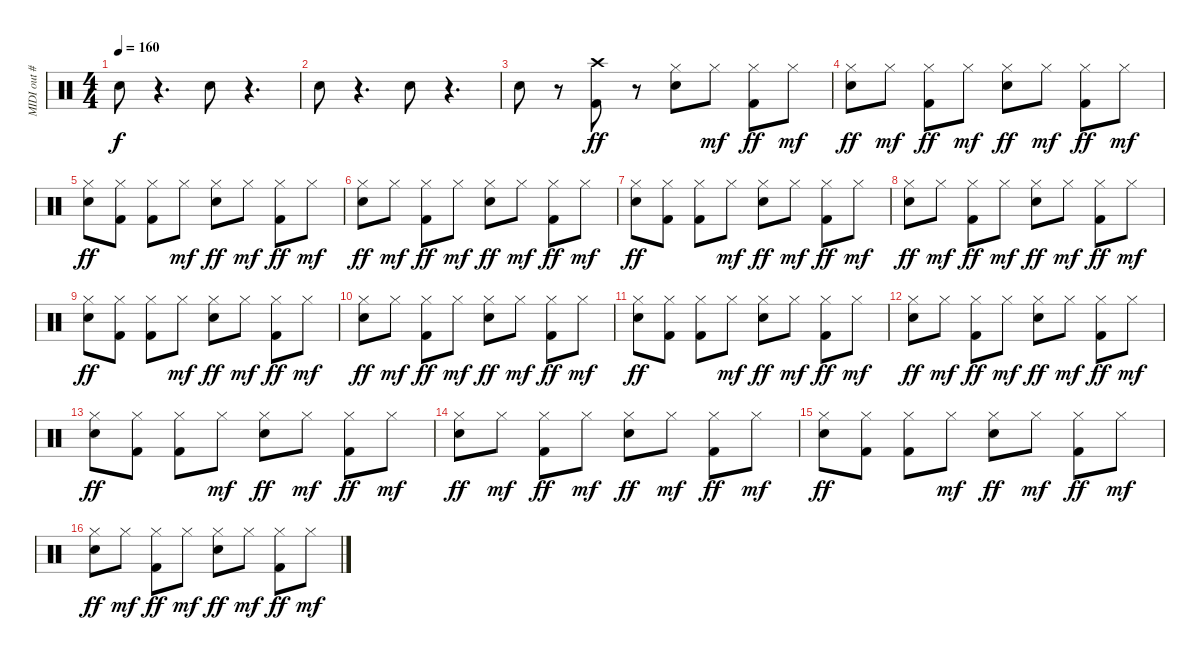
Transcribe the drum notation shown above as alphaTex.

\track ("MIDI out #4" "MIDI out #") {instrument percussion}
\staff {score}
\articulation defaults
\ts (4 4)
\tempo 160
\clef neutral
\ks c "Snare (hit) 2".8{dy f}
r.4{d} "Snare (hit) 2".8 r.4{d} |
"Snare (hit) 2".8 r.4{d} "Snare (hit) 2".8 r.4{d} |
"Snare (hit) 2".8 r.8 ("Crash high (hit)" "Kick (hit) 2").8{dy ff} r.8 ("Hi-Hat (closed)" "Snare (hit) 2").8 "Hi-Hat (closed)".8{dy mf} ("Hi-Hat (closed)" "Kick (hit) 2").8{dy ff} "Hi-Hat (closed)".8{dy mf} |
("Hi-Hat (closed)" "Snare (hit) 2").8{dy ff} "Hi-Hat (closed)".8{dy mf} ("Hi-Hat (closed)" "Kick (hit) 2").8{dy ff} "Hi-Hat (closed)".8{dy mf} ("Hi-Hat (closed)" "Snare (hit) 2").8{dy ff} "Hi-Hat (closed)".8{dy mf} ("Hi-Hat (closed)" "Kick (hit) 2").8{dy ff} "Hi-Hat (closed)".8{dy mf} |
("Hi-Hat (closed)" "Snare (hit) 2").8{dy ff} ("Hi-Hat (closed)" "Kick (hit) 2").8 ("Hi-Hat (closed)" "Kick (hit) 2").8 "Hi-Hat (closed)".8{dy mf} ("Hi-Hat (closed)" "Snare (hit) 2").8{dy ff} "Hi-Hat (closed)".8{dy mf} ("Hi-Hat (closed)" "Kick (hit) 2").8{dy ff} "Hi-Hat (closed)".8{dy mf} |
("Hi-Hat (closed)" "Snare (hit) 2").8{dy ff} "Hi-Hat (closed)".8{dy mf} ("Hi-Hat (closed)" "Kick (hit) 2").8{dy ff} "Hi-Hat (closed)".8{dy mf} ("Hi-Hat (closed)" "Snare (hit) 2").8{dy ff} "Hi-Hat (closed)".8{dy mf} ("Hi-Hat (closed)" "Kick (hit) 2").8{dy ff} "Hi-Hat (closed)".8{dy mf} |
("Hi-Hat (closed)" "Snare (hit) 2").8{dy ff} ("Hi-Hat (closed)" "Kick (hit) 2").8 ("Hi-Hat (closed)" "Kick (hit) 2").8 "Hi-Hat (closed)".8{dy mf} ("Hi-Hat (closed)" "Snare (hit) 2").8{dy ff} "Hi-Hat (closed)".8{dy mf} ("Hi-Hat (closed)" "Kick (hit) 2").8{dy ff} "Hi-Hat (closed)".8{dy mf} |
("Hi-Hat (closed)" "Snare (hit) 2").8{dy ff} "Hi-Hat (closed)".8{dy mf} ("Hi-Hat (closed)" "Kick (hit) 2").8{dy ff} "Hi-Hat (closed)".8{dy mf} ("Hi-Hat (closed)" "Snare (hit) 2").8{dy ff} "Hi-Hat (closed)".8{dy mf} ("Hi-Hat (closed)" "Kick (hit) 2").8{dy ff} "Hi-Hat (closed)".8{dy mf} |
("Hi-Hat (closed)" "Snare (hit) 2").8{dy ff} ("Hi-Hat (closed)" "Kick (hit) 2").8 ("Hi-Hat (closed)" "Kick (hit) 2").8 "Hi-Hat (closed)".8{dy mf} ("Hi-Hat (closed)" "Snare (hit) 2").8{dy ff} "Hi-Hat (closed)".8{dy mf} ("Hi-Hat (closed)" "Kick (hit) 2").8{dy ff} "Hi-Hat (closed)".8{dy mf} |
("Hi-Hat (closed)" "Snare (hit) 2").8{dy ff} "Hi-Hat (closed)".8{dy mf} ("Hi-Hat (closed)" "Kick (hit) 2").8{dy ff} "Hi-Hat (closed)".8{dy mf} ("Hi-Hat (closed)" "Snare (hit) 2").8{dy ff} "Hi-Hat (closed)".8{dy mf} ("Hi-Hat (closed)" "Kick (hit) 2").8{dy ff} "Hi-Hat (closed)".8{dy mf} |
("Hi-Hat (closed)" "Snare (hit) 2").8{dy ff} ("Hi-Hat (closed)" "Kick (hit) 2").8 ("Hi-Hat (closed)" "Kick (hit) 2").8 "Hi-Hat (closed)".8{dy mf} ("Hi-Hat (closed)" "Snare (hit) 2").8{dy ff} "Hi-Hat (closed)".8{dy mf} ("Hi-Hat (closed)" "Kick (hit) 2").8{dy ff} "Hi-Hat (closed)".8{dy mf} |
("Hi-Hat (closed)" "Snare (hit) 2").8{dy ff} "Hi-Hat (closed)".8{dy mf} ("Hi-Hat (closed)" "Kick (hit) 2").8{dy ff} "Hi-Hat (closed)".8{dy mf} ("Hi-Hat (closed)" "Snare (hit) 2").8{dy ff} "Hi-Hat (closed)".8{dy mf} ("Hi-Hat (closed)" "Kick (hit) 2").8{dy ff} "Hi-Hat (closed)".8{dy mf} |
("Hi-Hat (closed)" "Snare (hit) 2").8{dy ff} ("Hi-Hat (closed)" "Kick (hit) 2").8 ("Hi-Hat (closed)" "Kick (hit) 2").8 "Hi-Hat (closed)".8{dy mf} ("Hi-Hat (closed)" "Snare (hit) 2").8{dy ff} "Hi-Hat (closed)".8{dy mf} ("Hi-Hat (closed)" "Kick (hit) 2").8{dy ff} "Hi-Hat (closed)".8{dy mf} |
("Hi-Hat (closed)" "Snare (hit) 2").8{dy ff} "Hi-Hat (closed)".8{dy mf} ("Hi-Hat (closed)" "Kick (hit) 2").8{dy ff} "Hi-Hat (closed)".8{dy mf} ("Hi-Hat (closed)" "Snare (hit) 2").8{dy ff} "Hi-Hat (closed)".8{dy mf} ("Hi-Hat (closed)" "Kick (hit) 2").8{dy ff} "Hi-Hat (closed)".8{dy mf} |
("Hi-Hat (closed)" "Snare (hit) 2").8{dy ff} ("Hi-Hat (closed)" "Kick (hit) 2").8 ("Hi-Hat (closed)" "Kick (hit) 2").8 "Hi-Hat (closed)".8{dy mf} ("Hi-Hat (closed)" "Snare (hit) 2").8{dy ff} "Hi-Hat (closed)".8{dy mf} ("Hi-Hat (closed)" "Kick (hit) 2").8{dy ff} "Hi-Hat (closed)".8{dy mf} |
("Hi-Hat (closed)" "Snare (hit) 2").8{dy ff} "Hi-Hat (closed)".8{dy mf} ("Hi-Hat (closed)" "Kick (hit) 2").8{dy ff} "Hi-Hat (closed)".8{dy mf} ("Hi-Hat (closed)" "Snare (hit) 2").8{dy ff} "Hi-Hat (closed)".8{dy mf} ("Hi-Hat (closed)" "Kick (hit) 2").8{dy ff} "Hi-Hat (closed)".8{dy mf}
